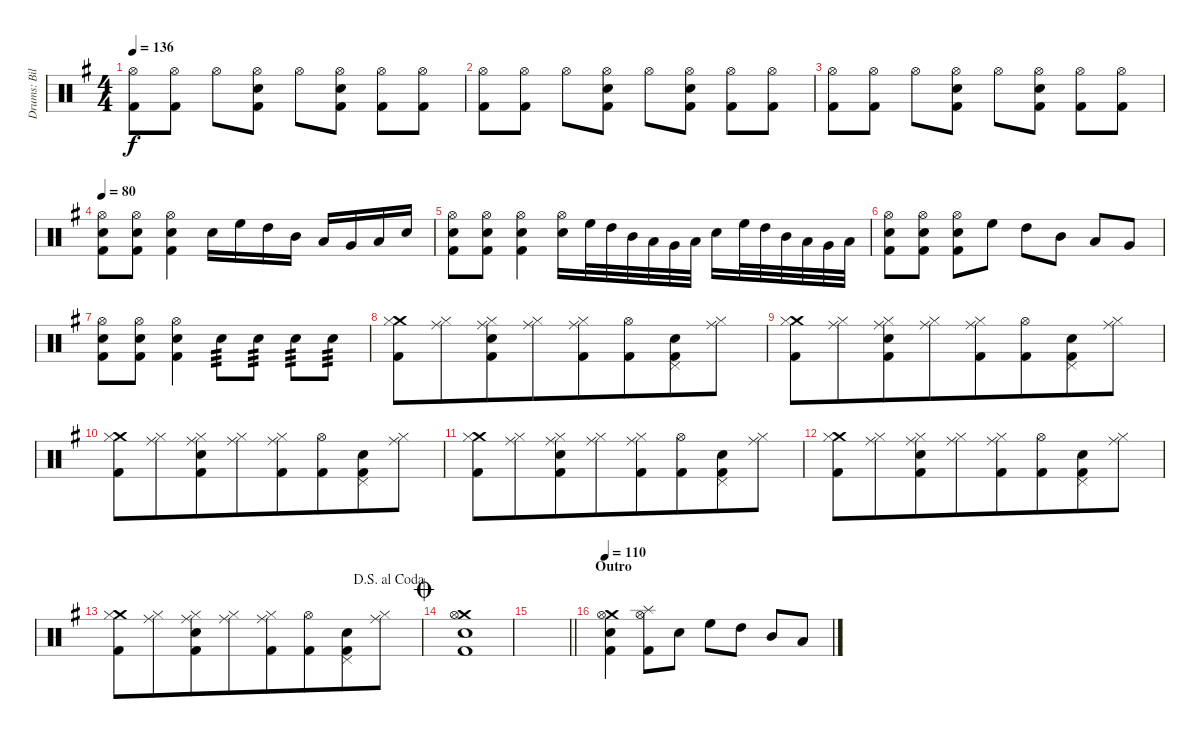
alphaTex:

\track ("Drums: Bill" "Drums: Bil") {instrument percussion}
\staff {score}
\articulation defaults
\ts (4 4)
\tempo 136
\clef neutral
\ks g
("Hi-Hat (open)" "Kick (hit) 2").8{dy f} ("Hi-Hat (open)" "Kick (hit) 2").8 "Hi-Hat (open)".8 ("Hi-Hat (open)" "Snare (hit) 2" "Kick (hit) 2").8 "Hi-Hat (open)".8 ("Hi-Hat (open)" "Snare (hit) 2" "Kick (hit) 2").8 ("Hi-Hat (open)" "Kick (hit) 2").8 ("Hi-Hat (open)" "Kick (hit) 2").8 |
("Hi-Hat (open)" "Kick (hit) 2").8 ("Hi-Hat (open)" "Kick (hit) 2").8 "Hi-Hat (open)".8 ("Hi-Hat (open)" "Snare (hit) 2" "Kick (hit) 2").8 "Hi-Hat (open)".8 ("Hi-Hat (open)" "Snare (hit) 2" "Kick (hit) 2").8 ("Hi-Hat (open)" "Kick (hit) 2").8 ("Hi-Hat (open)" "Kick (hit) 2").8 |
("Hi-Hat (open)" "Kick (hit) 2").8 ("Hi-Hat (open)" "Kick (hit) 2").8 "Hi-Hat (open)".8 ("Hi-Hat (open)" "Snare (hit) 2" "Kick (hit) 2").8 "Hi-Hat (open)".8 ("Hi-Hat (open)" "Snare (hit) 2" "Kick (hit) 2").8 ("Hi-Hat (open)" "Kick (hit) 2").8 ("Hi-Hat (open)" "Kick (hit) 2").8 |
\tempo 80
("Hi-Hat (open)" "Snare (hit) 2" "Kick (hit) 2").8 ("Hi-Hat (open)" "Snare (hit) 2" "Kick (hit) 2").8 ("Hi-Hat (open)" "Snare (hit) 2" "Kick (hit) 2").4 "Snare (hit) 2".16 "High Floor Tom (hit)".16 "High Tom (hit)".16 "Mid Tom (hit)".16 "Low Tom (hit)".16 "Very Low Tom (hit)".16 "Low Floor Tom (hit)".16 "Snare (hit) 2".16 |
("Hi-Hat (open)" "Snare (hit) 2" "Kick (hit) 2").8 ("Hi-Hat (open)" "Snare (hit) 2" "Kick (hit) 2").8 ("Hi-Hat (open)" "Snare (hit) 2" "Kick (hit) 2").4 ("Hi-Hat (open)" "Snare (hit) 2").16 "High Floor Tom (hit)".32 "High Tom (hit)".32 "Mid Tom (hit)".32 "Low Tom (hit)".32 "Very Low Tom (hit)".32 "Low Floor Tom (hit)".32 "Snare (hit) 2".16 "High Floor Tom (hit)".32 "High Tom (hit)".32 "Mid Tom (hit)".32 "Low Tom (hit)".32 "Very Low Tom (hit)".32 "Low Floor Tom (hit)".32 |
("Hi-Hat (open)" "Snare (hit) 2" "Kick (hit) 2").8 ("Hi-Hat (open)" "Snare (hit) 2" "Kick (hit) 2").8 ("Hi-Hat (open)" "Snare (hit) 2" "Kick (hit) 2").8 "High Floor Tom (hit)".8 "High Tom (hit)".8 "Mid Tom (hit)".8 "Low Tom (hit)".8 "Very Low Tom (hit)".8 |
("Hi-Hat (open)" "Snare (hit) 2" "Kick (hit) 2").8 ("Hi-Hat (open)" "Snare (hit) 2" "Kick (hit) 2").8 ("Hi-Hat (open)" "Snare (hit) 2" "Kick (hit) 2").4 "Electric Snare (hit)".8{tp 3} "Electric Snare (hit)".8{tp 3} "Electric Snare (hit)".8{tp 3} "Electric Snare (hit)".8{tp 3} |
("Crash medium (hit)" "Hi-Hat (closed)" "Kick (hit) 2").8 ("Ride (middle)" "Hi-Hat (closed)").8{beam merge} ("Ride (middle)" "Hi-Hat (closed)" "Snare (hit) 2" "Kick (hit) 2").8 ("Ride (middle)" "Hi-Hat (closed)").8{beam merge} ("Ride (middle)" "Hi-Hat (closed)" "Kick (hit) 2").8 ("Hi-Hat (open)" "Kick (hit) 2").8{beam merge} ("Pedal Hi-Hat (hit)" "Snare (hit) 2" "Kick (hit) 2").8 ("Ride (middle)" "Hi-Hat (closed)").8 |
("Crash medium (hit)" "Hi-Hat (closed)" "Kick (hit) 2").8 ("Ride (middle)" "Hi-Hat (closed)").8{beam merge} ("Ride (middle)" "Hi-Hat (closed)" "Snare (hit) 2" "Kick (hit) 2").8 ("Ride (middle)" "Hi-Hat (closed)").8{beam merge} ("Ride (middle)" "Hi-Hat (closed)" "Kick (hit) 2").8 ("Hi-Hat (open)" "Kick (hit) 2").8{beam merge} ("Pedal Hi-Hat (hit)" "Snare (hit) 2" "Kick (hit) 2").8 ("Ride (middle)" "Hi-Hat (closed)").8 |
("Crash medium (hit)" "Hi-Hat (closed)" "Kick (hit) 2").8 ("Ride (middle)" "Hi-Hat (closed)").8{beam merge} ("Ride (middle)" "Hi-Hat (closed)" "Snare (hit) 2" "Kick (hit) 2").8 ("Ride (middle)" "Hi-Hat (closed)").8{beam merge} ("Ride (middle)" "Hi-Hat (closed)" "Kick (hit) 2").8 ("Hi-Hat (open)" "Kick (hit) 2").8{beam merge} ("Pedal Hi-Hat (hit)" "Snare (hit) 2" "Kick (hit) 2").8 ("Ride (middle)" "Hi-Hat (closed)").8 |
("Crash medium (hit)" "Hi-Hat (closed)" "Kick (hit) 2").8 ("Ride (middle)" "Hi-Hat (closed)").8{beam merge} ("Ride (middle)" "Hi-Hat (closed)" "Snare (hit) 2" "Kick (hit) 2").8 ("Ride (middle)" "Hi-Hat (closed)").8{beam merge} ("Ride (middle)" "Hi-Hat (closed)" "Kick (hit) 2").8 ("Hi-Hat (open)" "Kick (hit) 2").8{beam merge} ("Pedal Hi-Hat (hit)" "Snare (hit) 2" "Kick (hit) 2").8 ("Ride (middle)" "Hi-Hat (closed)").8 |
("Crash medium (hit)" "Hi-Hat (closed)" "Kick (hit) 2").8 ("Ride (middle)" "Hi-Hat (closed)").8{beam merge} ("Ride (middle)" "Hi-Hat (closed)" "Snare (hit) 2" "Kick (hit) 2").8 ("Ride (middle)" "Hi-Hat (closed)").8{beam merge} ("Ride (middle)" "Hi-Hat (closed)" "Kick (hit) 2").8 ("Hi-Hat (open)" "Kick (hit) 2").8{beam merge} ("Pedal Hi-Hat (hit)" "Snare (hit) 2" "Kick (hit) 2").8 ("Ride (middle)" "Hi-Hat (closed)").8 |
\jump dalsegnoalcoda
("Crash medium (hit)" "Hi-Hat (closed)" "Kick (hit) 2").8 ("Ride (middle)" "Hi-Hat (closed)").8{beam merge} ("Ride (middle)" "Hi-Hat (closed)" "Snare (hit) 2" "Kick (hit) 2").8 ("Ride (middle)" "Hi-Hat (closed)").8{beam merge} ("Ride (middle)" "Hi-Hat (closed)" "Kick (hit) 2").8 ("Hi-Hat (open)" "Kick (hit) 2").8{beam merge} ("Pedal Hi-Hat (hit)" "Snare (hit) 2" "Kick (hit) 2").8 ("Ride (middle)" "Hi-Hat (closed)").8 |
\jump coda
("Crash medium (hit)" "Hi-Hat (open)" "Snare (hit) 2" "Kick (hit) 2").1 |
\barLineRight lightlight
|
\section ("" "Outro")
\tempo 110
("Crash medium (hit)" "Hi-Hat (open)" "Snare (hit) 2" "Kick (hit) 2").4{beam merge} ("Splash (hit)" "Hi-Hat (open)" "Kick (hit) 2").8 "Snare (hit) 2".8 "High Floor Tom (hit)".8 "High Tom (hit)".8 "Mid Tom (hit)".8 "Low Tom (hit)".8
